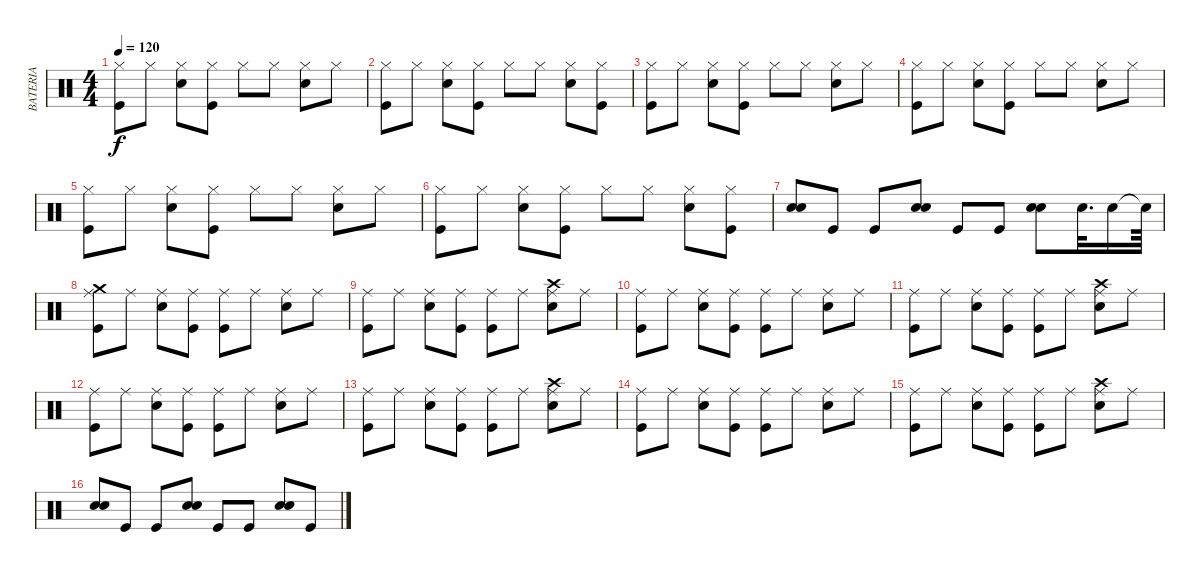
\track ("BATERIA" "BATERIA") {instrument percussion}
\staff {score}
\articulation defaults
\ts (4 4)
\tempo 120
\clef neutral
\ks c
("Hi-Hat (closed)" "Kick (hit)").8{dy f} "Hi-Hat (closed)".8 ("Hi-Hat (closed)" "Snare (hit) 2").8 ("Hi-Hat (closed)" "Kick (hit)").8 "Hi-Hat (closed)".8 "Hi-Hat (closed)".8 ("Hi-Hat (closed)" "Snare (hit) 2").8 "Hi-Hat (closed)".8 |
("Hi-Hat (closed)" "Kick (hit)").8 "Hi-Hat (closed)".8 ("Hi-Hat (closed)" "Snare (hit) 2").8 ("Hi-Hat (closed)" "Kick (hit)").8 "Hi-Hat (closed)".8 "Hi-Hat (closed)".8 ("Hi-Hat (closed)" "Snare (hit) 2").8 ("Hi-Hat (closed)" "Kick (hit)").8 |
("Hi-Hat (closed)" "Kick (hit)").8 "Hi-Hat (closed)".8 ("Hi-Hat (closed)" "Snare (hit) 2").8 ("Hi-Hat (closed)" "Kick (hit)").8 "Hi-Hat (closed)".8 "Hi-Hat (closed)".8 ("Hi-Hat (closed)" "Snare (hit) 2").8 "Hi-Hat (closed)".8 |
("Hi-Hat (closed)" "Kick (hit)").8 "Hi-Hat (closed)".8 ("Hi-Hat (closed)" "Snare (hit) 2").8 ("Hi-Hat (closed)" "Kick (hit)").8 "Hi-Hat (closed)".8 "Hi-Hat (closed)".8 ("Hi-Hat (closed)" "Snare (hit) 2").8 "Hi-Hat (closed)".8 |
("Hi-Hat (closed)" "Kick (hit)").8 "Hi-Hat (closed)".8 ("Hi-Hat (closed)" "Snare (hit) 2").8 ("Hi-Hat (closed)" "Kick (hit)").8 "Hi-Hat (closed)".8 "Hi-Hat (closed)".8 ("Hi-Hat (closed)" "Snare (hit) 2").8 "Hi-Hat (closed)".8 |
("Hi-Hat (closed)" "Kick (hit)").8 "Hi-Hat (closed)".8 ("Hi-Hat (closed)" "Snare (hit) 2").8 ("Hi-Hat (closed)" "Kick (hit)").8 "Hi-Hat (closed)".8 "Hi-Hat (closed)".8 ("Hi-Hat (closed)" "Snare (hit) 2").8 ("Hi-Hat (closed)" "Kick (hit)").8 |
("Snare (hit) 2" "Snare (hit) 2").8 "Kick (hit)".8 "Kick (hit)".8 ("Snare (hit) 2" "Snare (hit) 2").8 "Kick (hit)".8 "Kick (hit)".8 ("Snare (hit) 2" "Snare (hit) 2").8 "Snare (hit) 2".32{d} "Snare (hit) 2".16 "Snare (hit)"{t}.64 |
("Crash medium (hit)" "Ride (middle)" "Kick (hit)").8 "Ride (middle)".8 ("Ride (middle)" "Snare (hit) 2").8 ("Ride (middle)" "Kick (hit)").8 ("Ride (middle)" "Kick (hit)").8 "Ride (middle)".8 ("Ride (middle)" "Snare (hit) 2").8 "Ride (middle)".8 |
("Ride (middle)" "Kick (hit)").8 "Ride (middle)".8 ("Ride (middle)" "Snare (hit) 2").8 ("Ride (middle)" "Kick (hit)").8 ("Ride (middle)" "Kick (hit)").8 "Ride (middle)".8 ("Crash high (hit)" "Ride (middle)" "Snare (hit) 2").8 "Ride (middle)".8 |
("Ride (middle)" "Kick (hit)").8 "Ride (middle)".8 ("Ride (middle)" "Snare (hit) 2").8 ("Ride (middle)" "Kick (hit)").8 ("Ride (middle)" "Kick (hit)").8 "Ride (middle)".8 ("Ride (middle)" "Snare (hit) 2").8 "Ride (middle)".8 |
("Ride (middle)" "Kick (hit)").8 "Ride (middle)".8 ("Ride (middle)" "Snare (hit) 2").8 ("Ride (middle)" "Kick (hit)").8 ("Ride (middle)" "Kick (hit)").8 "Ride (middle)".8 ("Crash high (hit)" "Ride (middle)" "Snare (hit) 2").8 "Ride (middle)".8 |
("Ride (middle)" "Kick (hit)").8 "Ride (middle)".8 ("Ride (middle)" "Snare (hit) 2").8 ("Ride (middle)" "Kick (hit)").8 ("Ride (middle)" "Kick (hit)").8 "Ride (middle)".8 ("Ride (middle)" "Snare (hit) 2").8 "Ride (middle)".8 |
("Ride (middle)" "Kick (hit)").8 "Ride (middle)".8 ("Ride (middle)" "Snare (hit) 2").8 ("Ride (middle)" "Kick (hit)").8 ("Ride (middle)" "Kick (hit)").8 "Ride (middle)".8 ("Crash high (hit)" "Ride (middle)" "Snare (hit) 2").8 "Ride (middle)".8 |
("Ride (middle)" "Kick (hit)").8 "Ride (middle)".8 ("Ride (middle)" "Snare (hit) 2").8 ("Ride (middle)" "Kick (hit)").8 ("Ride (middle)" "Kick (hit)").8 "Ride (middle)".8 ("Ride (middle)" "Snare (hit) 2").8 "Ride (middle)".8 |
("Ride (middle)" "Kick (hit)").8 "Ride (middle)".8 ("Ride (middle)" "Snare (hit) 2").8 ("Ride (middle)" "Kick (hit)").8 ("Ride (middle)" "Kick (hit)").8 "Ride (middle)".8 ("Crash high (hit)" "Ride (middle)" "Snare (hit) 2").8 "Ride (middle)".8 |
("Snare (hit) 2" "Snare (hit) 2").8 "Kick (hit)".8 "Kick (hit)".8 ("Snare (hit) 2" "Snare (hit) 2").8 "Kick (hit)".8 "Kick (hit)".8 ("Snare (hit) 2" "Snare (hit) 2").8 "Kick (hit)".8
